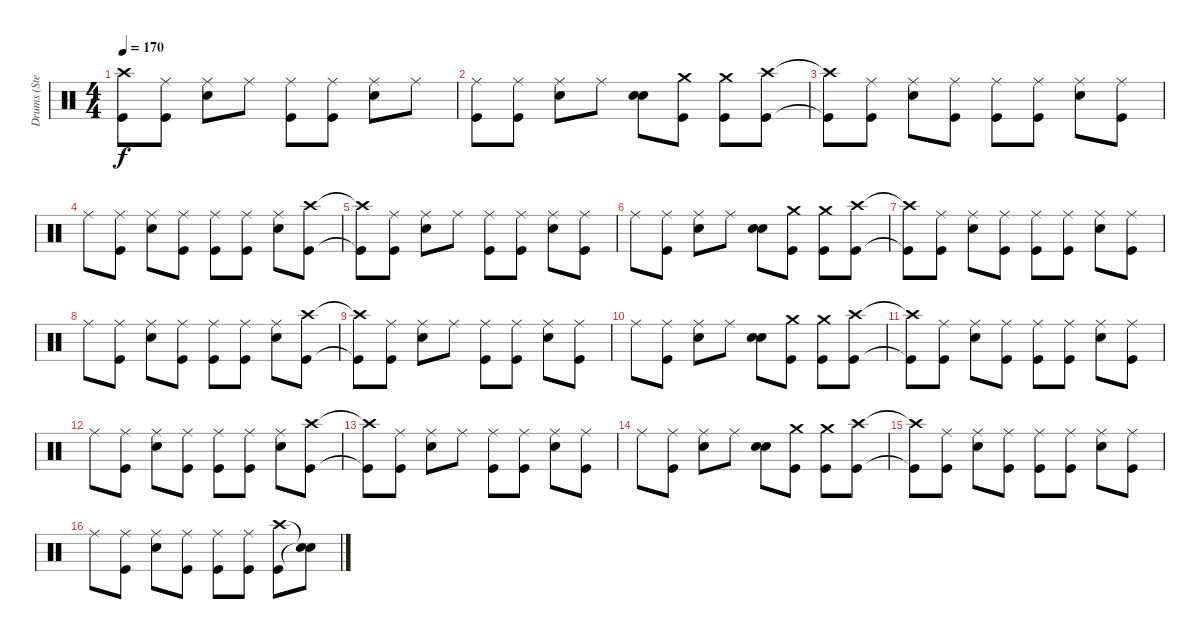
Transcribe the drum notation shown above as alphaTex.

\track ("Drums (Steven)" "Drums (Ste") {instrument percussion}
\staff {score}
\articulation defaults
\ts (4 4)
\tempo 170
\clef neutral
\ks c
("Crash high (hit)" "Kick (hit)").8{dy f} ("Ride (middle)" "Kick (hit)").8 ("Ride (middle)" "Snare (hit) 2").8 "Ride (middle)".8 ("Ride (middle)" "Kick (hit)").8 ("Ride (middle)" "Kick (hit)").8 ("Ride (middle)" "Snare (hit) 2").8 "Ride (middle)".8 |
("Ride (middle)" "Kick (hit)").8 ("Ride (middle)" "Kick (hit)").8 ("Ride (middle)" "Snare (hit) 2").8 "Ride (middle)".8 ("Snare (hit) 2" "Snare (hit) 2").8 ("Crash medium (hit)" "Kick (hit)").8 ("Crash medium (hit)" "Kick (hit)").8 ("Crash high (hit)" "Kick (hit)").8 |
("Crash high (hit)"{t} "Kick (hit)"{t}).8 ("Ride (middle)" "Kick (hit)").8 ("Ride (middle)" "Snare (hit) 2").8 ("Ride (middle)" "Kick (hit)").8 ("Ride (middle)" "Kick (hit)").8 ("Ride (middle)" "Kick (hit)").8 ("Ride (middle)" "Snare (hit) 2").8 ("Ride (middle)" "Kick (hit)").8 |
"Ride (middle)".8 ("Ride (middle)" "Kick (hit)").8 ("Ride (middle)" "Snare (hit) 2").8 ("Ride (middle)" "Kick (hit)").8 ("Ride (middle)" "Kick (hit)").8 ("Ride (middle)" "Kick (hit)").8 ("Ride (middle)" "Snare (hit) 2").8 ("Crash high (hit)" "Kick (hit)").8 |
("Crash high (hit)"{t} "Kick (hit)"{t}).8 ("Ride (middle)" "Kick (hit)").8 ("Ride (middle)" "Snare (hit) 2").8 "Ride (middle)".8 ("Ride (middle)" "Kick (hit)").8 ("Ride (middle)" "Kick (hit)").8 ("Ride (middle)" "Snare (hit) 2").8 ("Ride (middle)" "Kick (hit)").8 |
"Ride (middle)".8 ("Ride (middle)" "Kick (hit)").8 ("Ride (middle)" "Snare (hit) 2").8 "Ride (middle)".8 ("Snare (hit) 2" "Snare (hit) 2").8 ("Crash medium (hit)" "Kick (hit)").8 ("Crash medium (hit)" "Kick (hit)").8 ("Crash high (hit)" "Kick (hit)").8 |
("Crash high (hit)"{t} "Kick (hit)"{t}).8 ("Ride (middle)" "Kick (hit)").8 ("Ride (middle)" "Snare (hit) 2").8 ("Ride (middle)" "Kick (hit)").8 ("Ride (middle)" "Kick (hit)").8 ("Ride (middle)" "Kick (hit)").8 ("Ride (middle)" "Snare (hit) 2").8 ("Ride (middle)" "Kick (hit)").8 |
"Ride (middle)".8 ("Ride (middle)" "Kick (hit)").8 ("Ride (middle)" "Snare (hit) 2").8 ("Ride (middle)" "Kick (hit)").8 ("Ride (middle)" "Kick (hit)").8 ("Ride (middle)" "Kick (hit)").8 ("Ride (middle)" "Snare (hit) 2").8 ("Crash high (hit)" "Kick (hit)").8 |
("Crash high (hit)"{t} "Kick (hit)"{t}).8 ("Ride (middle)" "Kick (hit)").8 ("Ride (middle)" "Snare (hit) 2").8 "Ride (middle)".8 ("Ride (middle)" "Kick (hit)").8 ("Ride (middle)" "Kick (hit)").8 ("Ride (middle)" "Snare (hit) 2").8 ("Ride (middle)" "Kick (hit)").8 |
"Ride (middle)".8 ("Ride (middle)" "Kick (hit)").8 ("Ride (middle)" "Snare (hit) 2").8 "Ride (middle)".8 ("Snare (hit) 2" "Snare (hit) 2").8 ("Crash medium (hit)" "Kick (hit)").8 ("Crash medium (hit)" "Kick (hit)").8 ("Crash high (hit)" "Kick (hit)").8 |
("Crash high (hit)"{t} "Kick (hit)"{t}).8 ("Ride (middle)" "Kick (hit)").8 ("Ride (middle)" "Snare (hit) 2").8 ("Ride (middle)" "Kick (hit)").8 ("Ride (middle)" "Kick (hit)").8 ("Ride (middle)" "Kick (hit)").8 ("Ride (middle)" "Snare (hit) 2").8 ("Ride (middle)" "Kick (hit)").8 |
"Ride (middle)".8 ("Ride (middle)" "Kick (hit)").8 ("Ride (middle)" "Snare (hit) 2").8 ("Ride (middle)" "Kick (hit)").8 ("Ride (middle)" "Kick (hit)").8 ("Ride (middle)" "Kick (hit)").8 ("Ride (middle)" "Snare (hit) 2").8 ("Crash high (hit)" "Kick (hit)").8 |
("Crash high (hit)"{t} "Kick (hit)"{t}).8 ("Ride (middle)" "Kick (hit)").8 ("Ride (middle)" "Snare (hit) 2").8 "Ride (middle)".8 ("Ride (middle)" "Kick (hit)").8 ("Ride (middle)" "Kick (hit)").8 ("Ride (middle)" "Snare (hit) 2").8 ("Ride (middle)" "Kick (hit)").8 |
"Ride (middle)".8 ("Ride (middle)" "Kick (hit)").8 ("Ride (middle)" "Snare (hit) 2").8 "Ride (middle)".8 ("Snare (hit) 2" "Snare (hit) 2").8 ("Crash medium (hit)" "Kick (hit)").8 ("Crash medium (hit)" "Kick (hit)").8 ("Crash high (hit)" "Kick (hit)").8 |
("Crash high (hit)"{t} "Kick (hit)"{t}).8 ("Ride (middle)" "Kick (hit)").8 ("Ride (middle)" "Snare (hit) 2").8 ("Ride (middle)" "Kick (hit)").8 ("Ride (middle)" "Kick (hit)").8 ("Ride (middle)" "Kick (hit)").8 ("Ride (middle)" "Snare (hit) 2").8 ("Ride (middle)" "Kick (hit)").8 |
"Ride (middle)".8 ("Ride (middle)" "Kick (hit)").8 ("Ride (middle)" "Snare (hit) 2").8 ("Ride (middle)" "Kick (hit)").8 ("Ride (middle)" "Kick (hit)").8 ("Ride (middle)" "Kick (hit)").8 ("Crash high (hit)" "Kick (hit)").8 ("Snare (hit)"{t} "Snare (hit)"{t}).8
